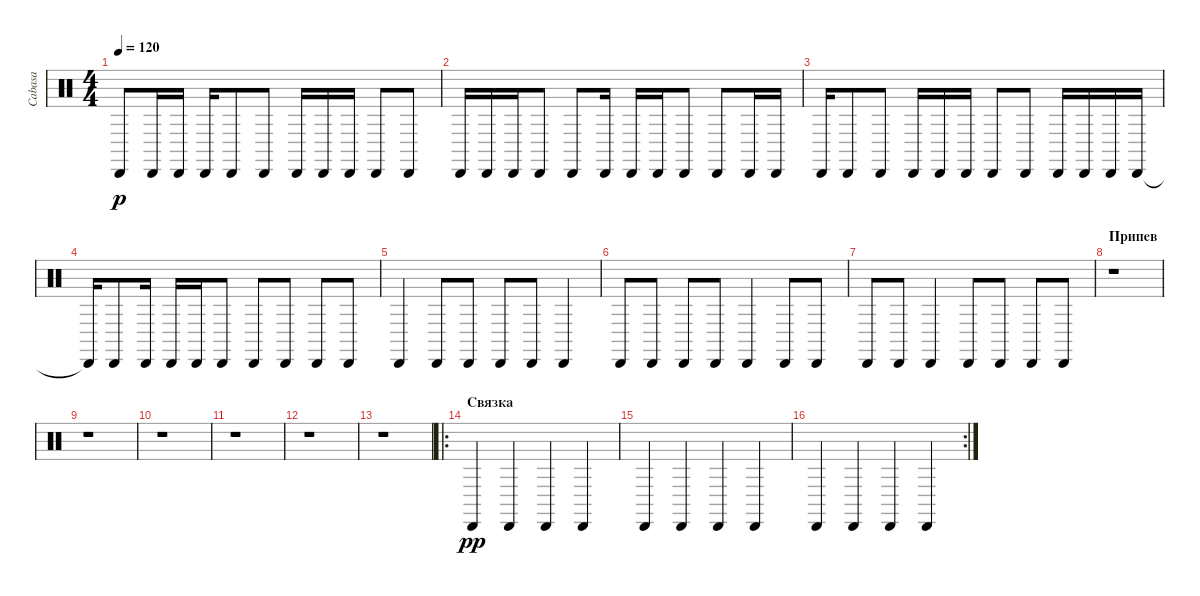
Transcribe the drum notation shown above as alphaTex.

\track ("Cabasa" "Cabasa") {instrument percussion}
\staff {score}
\articulation defaults
\ts (4 4)
\tempo 120
\clef neutral
\ks c "Cabasa (hit)".8{dy p} "Cabasa (hit)".16 "Cabasa (hit)".16 "Cabasa (hit)".16 "Cabasa (hit)".8 "Cabasa (hit)".8 "Cabasa (hit)".16 "Cabasa (hit)".16 "Cabasa (hit)".16 "Cabasa (hit)".8 "Cabasa (hit)".8
|
"Cabasa (hit)".16 "Cabasa (hit)".16 "Cabasa (hit)".16 "Cabasa (hit)".8 "Cabasa (hit)".8 "Cabasa (hit)".16 "Cabasa (hit)".16 "Cabasa (hit)".16 "Cabasa (hit)".8 "Cabasa (hit)".8 "Cabasa (hit)".16 "Cabasa (hit)".16 |
"Cabasa (hit)".16 "Cabasa (hit)".8 "Cabasa (hit)".8 "Cabasa (hit)".16 "Cabasa (hit)".16 "Cabasa (hit)".16 "Cabasa (hit)".8 "Cabasa (hit)".8 "Cabasa (hit)".16 "Cabasa (hit)".16 "Cabasa (hit)".16 "Cabasa (hit)".16 |
"Cabasa (hit)"{t}.16 "Cabasa (hit)".8 "Cabasa (hit)".16 "Cabasa (hit)".16 "Cabasa (hit)".16 "Cabasa (hit)".8 "Cabasa (hit)".8 "Cabasa (hit)".8 "Cabasa (hit)".8 "Cabasa (hit)".8 |
"Cabasa (hit)".4 "Cabasa (hit)".8 "Cabasa (hit)".8 "Cabasa (hit)".8 "Cabasa (hit)".8 "Cabasa (hit)".4 |
"Cabasa (hit)".8 "Cabasa (hit)".8 "Cabasa (hit)".8 "Cabasa (hit)".8 "Cabasa (hit)".4 "Cabasa (hit)".8 "Cabasa (hit)".8 |
"Cabasa (hit)".8 "Cabasa (hit)".8 "Cabasa (hit)".4 "Cabasa (hit)".8 "Cabasa (hit)".8 "Cabasa (hit)".8 "Cabasa (hit)".8 |
\section ("" "Припев")
r.1 |
r.1 |
r.1 |
r.1 |
r.1 |
r.1 |
\ro
\section ("" "Связка")
"Cabasa (hit)".4{dy pp} "Cabasa (hit)".4 "Cabasa (hit)".4 "Cabasa (hit)".4 |
"Cabasa (hit)".4 "Cabasa (hit)".4 "Cabasa (hit)".4 "Cabasa (hit)".4 |
\rc 2 "Cabasa (hit)".4 "Cabasa (hit)".4 "Cabasa (hit)".4 "Cabasa (hit)".4
